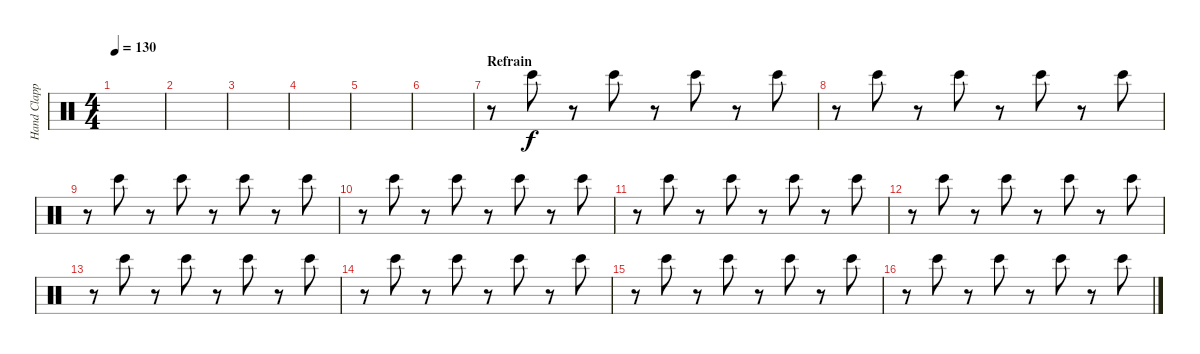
\track ("Hand Clapping" "Hand Clapp") {instrument percussion}
\staff {score}
\articulation defaults
\ts (4 4)
\tempo 130
\clef neutral
\ks c
|
|
|
|
|
|
\section ("" "Refrain")
r.8 "Bongo High (hit)".8 r.8 "Bongo High (hit)".8 r.8 "Bongo High (hit)".8 r.8 "Bongo High (hit)".8 |
r.8 "Bongo High (hit)".8 r.8 "Bongo High (hit)".8 r.8 "Bongo High (hit)".8 r.8 "Bongo High (hit)".8 |
r.8 "Bongo High (hit)".8 r.8 "Bongo High (hit)".8 r.8 "Bongo High (hit)".8 r.8 "Bongo High (hit)".8 |
r.8 "Bongo High (hit)".8 r.8 "Bongo High (hit)".8 r.8 "Bongo High (hit)".8 r.8 "Bongo High (hit)".8 |
r.8 "Bongo High (hit)".8 r.8 "Bongo High (hit)".8 r.8 "Bongo High (hit)".8 r.8 "Bongo High (hit)".8 |
r.8 "Bongo High (hit)".8 r.8 "Bongo High (hit)".8 r.8 "Bongo High (hit)".8 r.8 "Bongo High (hit)".8 |
r.8 "Bongo High (hit)".8 r.8 "Bongo High (hit)".8 r.8 "Bongo High (hit)".8 r.8 "Bongo High (hit)".8 |
r.8 "Bongo High (hit)".8 r.8 "Bongo High (hit)".8 r.8 "Bongo High (hit)".8 r.8 "Bongo High (hit)".8 |
r.8 "Bongo High (hit)".8 r.8 "Bongo High (hit)".8 r.8 "Bongo High (hit)".8 r.8 "Bongo High (hit)".8 |
r.8 "Bongo High (hit)".8 r.8 "Bongo High (hit)".8 r.8 "Bongo High (hit)".8 r.8 "Bongo High (hit)".8
